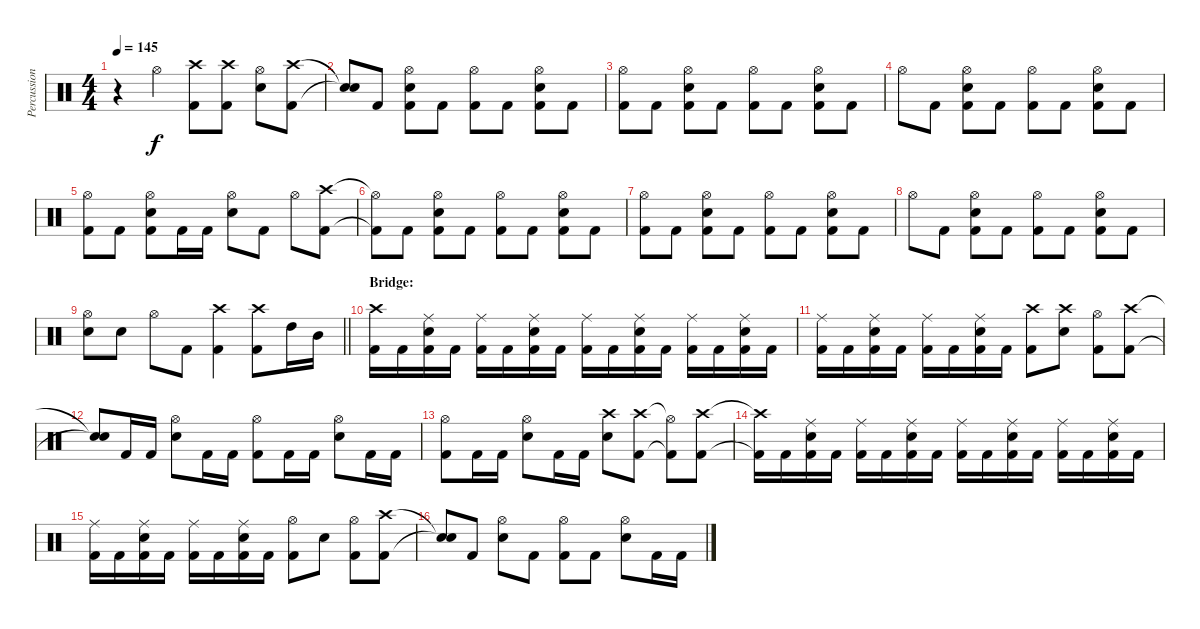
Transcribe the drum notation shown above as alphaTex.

\track ("Percussion" "Percussion") {instrument percussion}
\staff {score}
\articulation defaults
\ts (4 4)
\tempo 145
\clef neutral
\ks c
r.4{dy f} "Hi-Hat (open)".4 ("Crash high (hit)" "Kick (hit) 2").8 ("Crash high (hit)" "Kick (hit) 2").8 ("Hi-Hat (open)" "Electric Snare (hit)").8 ("Crash high (hit)" "Kick (hit) 2").8 |
("Snare (hit)"{t} "Snare (hit)"{t}).8 "Kick (hit) 2".8 ("Hi-Hat (open)" "Electric Snare (hit)" "Kick (hit) 2").8 "Kick (hit) 2".8 ("Hi-Hat (open)" "Kick (hit) 2").8 "Kick (hit) 2".8 ("Hi-Hat (open)" "Electric Snare (hit)" "Kick (hit) 2").8 "Kick (hit) 2".8 |
("Hi-Hat (open)" "Kick (hit) 2").8 "Kick (hit) 2".8 ("Hi-Hat (open)" "Electric Snare (hit)" "Kick (hit) 2").8 "Kick (hit) 2".8 ("Hi-Hat (open)" "Kick (hit) 2").8 "Kick (hit) 2".8 ("Hi-Hat (open)" "Electric Snare (hit)" "Kick (hit) 2").8 "Kick (hit) 2".8 |
"Hi-Hat (open)".8 "Kick (hit) 2".8 ("Hi-Hat (open)" "Electric Snare (hit)" "Kick (hit) 2").8 "Kick (hit) 2".8 ("Hi-Hat (open)" "Kick (hit) 2").8 "Kick (hit) 2".8 ("Hi-Hat (open)" "Electric Snare (hit)" "Kick (hit) 2").8 "Kick (hit) 2".8 |
("Hi-Hat (open)" "Kick (hit) 2").8 "Kick (hit) 2".8 ("Hi-Hat (open)" "Electric Snare (hit)" "Kick (hit) 2").8 "Kick (hit) 2".16 "Kick (hit) 2".16 ("Hi-Hat (open)" "Electric Snare (hit)").8 "Kick (hit) 2".8 "Hi-Hat (open)".8 ("Crash high (hit)" "Kick (hit) 2").8 |
("Hi-Hat (open)"{t} "Kick (hit) 2"{t}).8 "Kick (hit) 2".8 ("Hi-Hat (open)" "Electric Snare (hit)" "Kick (hit) 2").8 "Kick (hit) 2".8 ("Hi-Hat (open)" "Kick (hit) 2").8 "Kick (hit) 2".8 ("Hi-Hat (open)" "Electric Snare (hit)" "Kick (hit) 2").8 "Kick (hit) 2".8 |
("Hi-Hat (open)" "Kick (hit) 2").8 "Kick (hit) 2".8 ("Hi-Hat (open)" "Electric Snare (hit)" "Kick (hit) 2").8 "Kick (hit) 2".8 ("Hi-Hat (open)" "Kick (hit) 2").8 "Kick (hit) 2".8 ("Hi-Hat (open)" "Electric Snare (hit)" "Kick (hit) 2").8 "Kick (hit) 2".8 |
"Hi-Hat (open)".8 "Kick (hit) 2".8 ("Hi-Hat (open)" "Electric Snare (hit)" "Kick (hit) 2").8 "Kick (hit) 2".8 ("Hi-Hat (open)" "Kick (hit) 2").8 "Kick (hit) 2".8 ("Hi-Hat (open)" "Electric Snare (hit)" "Kick (hit) 2").8 "Kick (hit) 2".8 |
\barLineRight lightlight
("Hi-Hat (open)" "Electric Snare (hit)").8 "Electric Snare (hit)".8 "Hi-Hat (open)".8 "Kick (hit) 2".8 ("Crash high (hit)" "Kick (hit) 2").4 ("Crash high (hit)" "Kick (hit) 2").8 "High Tom (hit)".16 "Mid Tom (hit)".16 |
\section ("" "Bridge:")
("Crash high (hit)" "Kick (hit) 2").16 "Kick (hit) 2".16 ("Ride (middle)" "Electric Snare (hit)" "Kick (hit) 2").16 "Kick (hit) 2".16 ("Ride (middle)" "Kick (hit) 2").16 "Kick (hit) 2".16 ("Ride (middle)" "Electric Snare (hit)" "Kick (hit) 2").16 "Kick (hit) 2".16 ("Ride (middle)" "Kick (hit) 2").16 "Kick (hit) 2".16 ("Ride (middle)" "Electric Snare (hit)" "Kick (hit) 2").16 "Kick (hit) 2".16 ("Ride (middle)" "Kick (hit) 2").16 "Kick (hit) 2".16 ("Ride (middle)" "Electric Snare (hit)" "Kick (hit) 2").16 "Kick (hit) 2".16 |
("Ride (middle)" "Kick (hit) 2").16 "Kick (hit) 2".16 ("Ride (middle)" "Electric Snare (hit)" "Kick (hit) 2").16 "Kick (hit) 2".16 ("Ride (middle)" "Kick (hit) 2").16 "Kick (hit) 2".16 ("Ride (middle)" "Electric Snare (hit)" "Kick (hit) 2").16 "Kick (hit) 2".16 ("Crash high (hit)" "Kick (hit) 2").8 ("Crash high (hit)" "Electric Snare (hit)").8 ("Hi-Hat (open)" "Kick (hit) 2").8 ("Crash high (hit)" "Kick (hit) 2").8 |
("Snare (hit)"{t} "Snare (hit)"{t}).8 "Kick (hit) 2".16 "Kick (hit) 2".16 ("Hi-Hat (open)" "Electric Snare (hit)").8 "Kick (hit) 2".16 "Kick (hit) 2".16 ("Hi-Hat (open)" "Kick (hit) 2").8 "Kick (hit) 2".16 "Kick (hit) 2".16 ("Hi-Hat (open)" "Electric Snare (hit)").8 "Kick (hit) 2".16 "Kick (hit) 2".16 |
("Hi-Hat (open)" "Kick (hit) 2").8 "Kick (hit) 2".16 "Kick (hit) 2".16 ("Hi-Hat (open)" "Electric Snare (hit)").8 "Kick (hit) 2".16 "Kick (hit) 2".16 ("Crash high (hit)" "Electric Snare (hit)").8 ("Crash high (hit)" "Kick (hit) 2").8 ("Hi-Hat (open)"{t} "Kick (hit) 2"{t}).8 ("Crash high (hit)" "Kick (hit) 2").8 |
("Crash high (hit)"{t} "Kick (hit) 2"{t}).16 "Kick (hit) 2".16 ("Ride (middle)" "Electric Snare (hit)" "Kick (hit) 2").16 "Kick (hit) 2".16 ("Ride (middle)" "Kick (hit) 2").16 "Kick (hit) 2".16 ("Ride (middle)" "Electric Snare (hit)" "Kick (hit) 2").16 "Kick (hit) 2".16 ("Ride (middle)" "Kick (hit) 2").16 "Kick (hit) 2".16 ("Ride (middle)" "Electric Snare (hit)" "Kick (hit) 2").16 "Kick (hit) 2".16 ("Ride (middle)" "Kick (hit) 2").16 "Kick (hit) 2".16 ("Ride (middle)" "Electric Snare (hit)" "Kick (hit) 2").16 "Kick (hit) 2".16 |
("Ride (middle)" "Kick (hit) 2").16 "Kick (hit) 2".16 ("Ride (middle)" "Electric Snare (hit)" "Kick (hit) 2").16 "Kick (hit) 2".16 ("Ride (middle)" "Kick (hit) 2").16 "Kick (hit) 2".16 ("Ride (middle)" "Electric Snare (hit)" "Kick (hit) 2").16 "Kick (hit) 2".16 ("Hi-Hat (open)" "Kick (hit) 2").8 "Electric Snare (hit)".8 ("Hi-Hat (open)" "Kick (hit) 2").8 ("Crash high (hit)" "Kick (hit) 2").8 |
("Snare (hit)"{t} "Snare (hit)"{t}).8 "Kick (hit) 2".8 ("Hi-Hat (open)" "Electric Snare (hit)").8 "Kick (hit) 2".8 ("Hi-Hat (open)" "Kick (hit) 2").8 "Kick (hit) 2".8 ("Hi-Hat (open)" "Electric Snare (hit)").8 "Kick (hit) 2".16 "Kick (hit) 2".16
